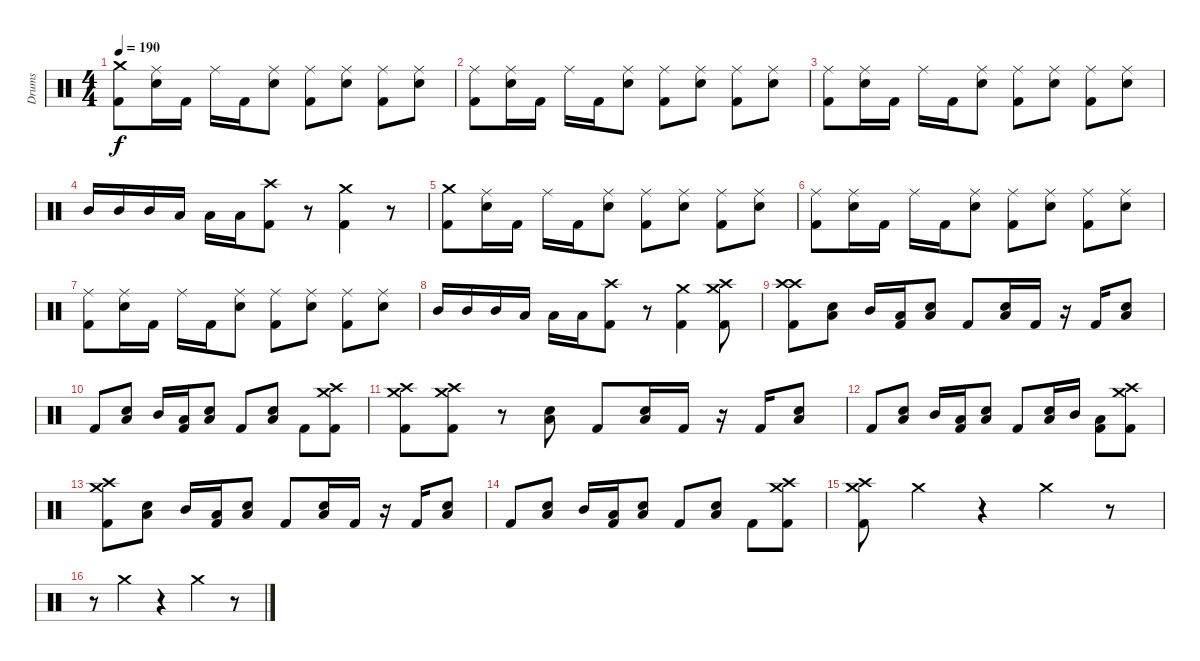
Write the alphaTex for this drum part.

\track ("Drums" "Drums") {instrument percussion}
\staff {score}
\articulation defaults
\ts (4 4)
\tempo 190
\clef neutral
\ks c
("Crash medium (hit)" "Kick (hit) 2").8{dy f} ("Ride (middle)" "Electric Snare (hit)").16 "Kick (hit) 2".16 "Ride (middle)".16 "Kick (hit) 2".16 ("Ride (middle)" "Electric Snare (hit)").8 ("Ride (middle)" "Kick (hit) 2").8 ("Ride (middle)" "Electric Snare (hit)").8 ("Ride (middle)" "Kick (hit) 2").8 ("Ride (middle)" "Electric Snare (hit)").8 |
("Ride (middle)" "Kick (hit) 2").8 ("Ride (middle)" "Electric Snare (hit)").16 "Kick (hit) 2".16 "Ride (middle)".16 "Kick (hit) 2".16 ("Ride (middle)" "Electric Snare (hit)").8 ("Ride (middle)" "Kick (hit) 2").8 ("Ride (middle)" "Electric Snare (hit)").8 ("Ride (middle)" "Kick (hit) 2").8 ("Ride (middle)" "Electric Snare (hit)").8 |
("Ride (middle)" "Kick (hit) 2").8 ("Ride (middle)" "Electric Snare (hit)").16 "Kick (hit) 2".16 "Ride (middle)".16 "Kick (hit) 2".16 ("Ride (middle)" "Electric Snare (hit)").8 ("Ride (middle)" "Kick (hit) 2").8 ("Ride (middle)" "Electric Snare (hit)").8 ("Ride (middle)" "Kick (hit) 2").8 ("Ride (middle)" "Electric Snare (hit)").8 |
"Mid Tom (hit)".16 "Mid Tom (hit)".16 "Mid Tom (hit)".16 "Low Floor Tom (hit)".16 "Low Floor Tom (hit)".16 "Low Floor Tom (hit)".16 ("Crash high (hit)" "Kick (hit) 2").8 r.8 ("Crash medium (hit)" "Kick (hit) 2").4 r.8 |
("Crash medium (hit)" "Kick (hit) 2").8 ("Ride (middle)" "Electric Snare (hit)").16 "Kick (hit) 2".16 "Ride (middle)".16 "Kick (hit) 2".16 ("Ride (middle)" "Electric Snare (hit)").8 ("Ride (middle)" "Kick (hit) 2").8 ("Ride (middle)" "Electric Snare (hit)").8 ("Ride (middle)" "Kick (hit) 2").8 ("Ride (middle)" "Electric Snare (hit)").8 |
("Ride (middle)" "Kick (hit) 2").8 ("Ride (middle)" "Electric Snare (hit)").16 "Kick (hit) 2".16 "Ride (middle)".16 "Kick (hit) 2".16 ("Ride (middle)" "Electric Snare (hit)").8 ("Ride (middle)" "Kick (hit) 2").8 ("Ride (middle)" "Electric Snare (hit)").8 ("Ride (middle)" "Kick (hit) 2").8 ("Ride (middle)" "Electric Snare (hit)").8 |
("Ride (middle)" "Kick (hit) 2").8 ("Ride (middle)" "Electric Snare (hit)").16 "Kick (hit) 2".16 "Ride (middle)".16 "Kick (hit) 2".16 ("Ride (middle)" "Electric Snare (hit)").8 ("Ride (middle)" "Kick (hit) 2").8 ("Ride (middle)" "Electric Snare (hit)").8 ("Ride (middle)" "Kick (hit) 2").8 ("Ride (middle)" "Electric Snare (hit)").8 |
"Mid Tom (hit)".16 "Mid Tom (hit)".16 "Mid Tom (hit)".16 "Low Floor Tom (hit)".16 "Low Floor Tom (hit)".16 "Low Floor Tom (hit)".16 ("Crash high (hit)" "Kick (hit) 2").8 r.8 ("Crash medium (hit)" "Kick (hit) 2").4 ("Crash medium (hit)" "Crash high (hit)" "Kick (hit) 2").8 |
("Crash high (hit)" "Crash high (hit)" "Kick (hit) 2").8 ("Electric Snare (hit)" "Low Floor Tom (hit)").8 "Mid Tom (hit)".16 ("Low Floor Tom (hit)" "Kick (hit) 2").16 ("Electric Snare (hit)" "Low Floor Tom (hit)").8 "Kick (hit) 2".8 ("Electric Snare (hit)" "Low Floor Tom (hit)").16 "Kick (hit) 2".16 r.16 "Kick (hit) 2".16 ("Electric Snare (hit)" "Low Floor Tom (hit)").8 |
"Kick (hit) 2".8 ("Electric Snare (hit)" "Low Floor Tom (hit)").8 "Mid Tom (hit)".16 ("Low Floor Tom (hit)" "Kick (hit) 2").16 ("Electric Snare (hit)" "Low Floor Tom (hit)").8 "Kick (hit) 2".8 ("Electric Snare (hit)" "Low Floor Tom (hit)").8 "Kick (hit) 2".8 ("Crash medium (hit)" "Crash high (hit)" "Kick (hit) 2").8 |
("Crash medium (hit)" "Crash high (hit)" "Kick (hit) 2").8 ("Crash medium (hit)" "Crash high (hit)" "Kick (hit) 2").8 r.8 ("Electric Snare (hit)" "Low Floor Tom (hit)").8 "Kick (hit) 2".8 ("Electric Snare (hit)" "Low Floor Tom (hit)").16 "Kick (hit) 2".16 r.16 "Kick (hit) 2".16 ("Electric Snare (hit)" "Low Floor Tom (hit)").8 |
"Kick (hit) 2".8 ("Electric Snare (hit)" "Low Floor Tom (hit)").8 "Mid Tom (hit)".16 ("Low Floor Tom (hit)" "Kick (hit) 2").16 ("Electric Snare (hit)" "Low Floor Tom (hit)").8 "Kick (hit) 2".8 ("Electric Snare (hit)" "Low Floor Tom (hit)").16 "Mid Tom (hit)".16 ("Low Floor Tom (hit)" "Kick (hit) 2").8 ("Crash medium (hit)" "Crash high (hit)" "Kick (hit) 2").8 |
("Crash medium (hit)" "Crash high (hit)" "Kick (hit) 2").8 ("Electric Snare (hit)" "Low Floor Tom (hit)").8 "Mid Tom (hit)".16 ("Low Floor Tom (hit)" "Kick (hit) 2").16 ("Electric Snare (hit)" "Low Floor Tom (hit)").8 "Kick (hit) 2".8 ("Electric Snare (hit)" "Low Floor Tom (hit)").16 "Kick (hit) 2".16 r.16 "Kick (hit) 2".16 ("Electric Snare (hit)" "Low Floor Tom (hit)").8 |
"Kick (hit) 2".8 ("Electric Snare (hit)" "Low Floor Tom (hit)").8 "Mid Tom (hit)".16 ("Low Floor Tom (hit)" "Kick (hit) 2").16 ("Electric Snare (hit)" "Low Floor Tom (hit)").8 "Kick (hit) 2".8 ("Electric Snare (hit)" "Low Floor Tom (hit)").8 "Kick (hit) 2".8 ("Crash medium (hit)" "Crash high (hit)" "Kick (hit) 2").8 |
("Crash medium (hit)" "Crash high (hit)" "Kick (hit) 2").8 "Crash medium (hit)".4 r.4 "Crash medium (hit)".4 r.8 |
r.8 "Crash medium (hit)".4 r.4 "Crash medium (hit)".4 r.8
